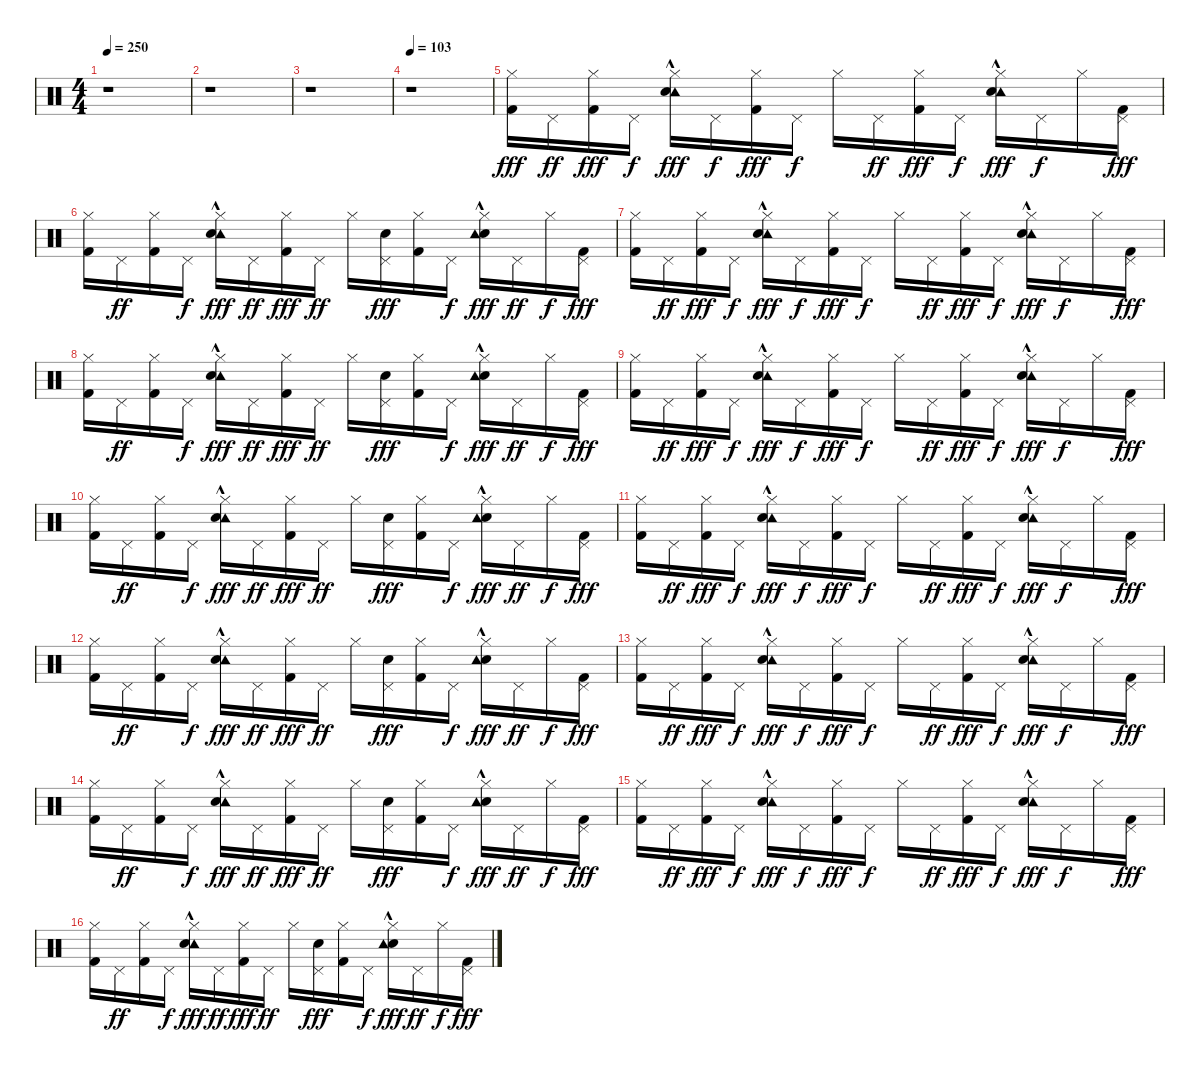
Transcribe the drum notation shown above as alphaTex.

\track "" {instrument percussion}
\staff {score}
\articulation defaults
\ts (4 4)
\tempo 250
\clef neutral
\ks c
r.1{dy fff} |
r.1 |
r.1 |
\tempo 103
r.1 |
("Hi-Hat (closed)" "Kick (hit) 2").16 "Pedal Hi-Hat (hit)".16{dy ff} ("Hi-Hat (closed)" "Kick (hit) 2").16{dy fff} "Pedal Hi-Hat (hit)".16{dy f} ("Tambourine (hit)"{hac} "Hi-Hat (closed)" "Electric Snare (hit)").16{dy fff} "Pedal Hi-Hat (hit)".16{dy f} ("Kick (hit) 2" "Hi-Hat (closed)").16{dy fff} "Pedal Hi-Hat (hit)".16{dy f} "Hi-Hat (closed)".16 "Pedal Hi-Hat (hit)".16{dy ff} ("Kick (hit) 2" "Hi-Hat (closed)").16{dy fff} "Pedal Hi-Hat (hit)".16{dy f} ("Tambourine (hit)"{hac} "Electric Snare (hit)" "Hi-Hat (closed)").16{dy fff} "Pedal Hi-Hat (hit)".16{dy f} "Hi-Hat (closed)".16 ("Kick (hit) 2" "Pedal Hi-Hat (hit)").16{dy fff} |
("Kick (hit) 2" "Hi-Hat (closed)").16 "Pedal Hi-Hat (hit)".16{dy ff} ("Kick (hit) 2" "Hi-Hat (closed)").16 "Pedal Hi-Hat (hit)".16{dy f} ("Tambourine (hit)"{hac} "Hi-Hat (closed)" "Electric Snare (hit)").16{dy fff} "Pedal Hi-Hat (hit)".16{dy ff} ("Hi-Hat (closed)" "Kick (hit) 2").16{dy fff} "Pedal Hi-Hat (hit)".16{dy ff} "Hi-Hat (closed)".16 ("Pedal Hi-Hat (hit)" "Electric Snare (hit)").16{dy fff} ("Kick (hit) 2" "Hi-Hat (closed)").16 "Pedal Hi-Hat (hit)".16{dy f} ("Electric Snare (hit)" "Hi-Hat (closed)" "Tambourine (hit)"{hac}).16{dy fff} "Pedal Hi-Hat (hit)".16{dy ff} "Hi-Hat (closed)".16{dy f} ("Pedal Hi-Hat (hit)" "Kick (hit) 2").16{dy fff} |
("Hi-Hat (closed)" "Kick (hit) 2").16 "Pedal Hi-Hat (hit)".16{dy ff} ("Hi-Hat (closed)" "Kick (hit) 2").16{dy fff} "Pedal Hi-Hat (hit)".16{dy f} ("Tambourine (hit)"{hac} "Hi-Hat (closed)" "Electric Snare (hit)").16{dy fff} "Pedal Hi-Hat (hit)".16{dy f} ("Kick (hit) 2" "Hi-Hat (closed)").16{dy fff} "Pedal Hi-Hat (hit)".16{dy f} "Hi-Hat (closed)".16 "Pedal Hi-Hat (hit)".16{dy ff} ("Kick (hit) 2" "Hi-Hat (closed)").16{dy fff} "Pedal Hi-Hat (hit)".16{dy f} ("Tambourine (hit)"{hac} "Electric Snare (hit)" "Hi-Hat (closed)").16{dy fff} "Pedal Hi-Hat (hit)".16{dy f} "Hi-Hat (closed)".16 ("Kick (hit) 2" "Pedal Hi-Hat (hit)").16{dy fff} |
("Kick (hit) 2" "Hi-Hat (closed)").16 "Pedal Hi-Hat (hit)".16{dy ff} ("Kick (hit) 2" "Hi-Hat (closed)").16 "Pedal Hi-Hat (hit)".16{dy f} ("Tambourine (hit)"{hac} "Hi-Hat (closed)" "Electric Snare (hit)").16{dy fff} "Pedal Hi-Hat (hit)".16{dy ff} ("Hi-Hat (closed)" "Kick (hit) 2").16{dy fff} "Pedal Hi-Hat (hit)".16{dy ff} "Hi-Hat (closed)".16 ("Pedal Hi-Hat (hit)" "Electric Snare (hit)").16{dy fff} ("Kick (hit) 2" "Hi-Hat (closed)").16 "Pedal Hi-Hat (hit)".16{dy f} ("Electric Snare (hit)" "Hi-Hat (closed)" "Tambourine (hit)"{hac}).16{dy fff} "Pedal Hi-Hat (hit)".16{dy ff} "Hi-Hat (closed)".16{dy f} ("Pedal Hi-Hat (hit)" "Kick (hit) 2").16{dy fff} |
("Hi-Hat (closed)" "Kick (hit) 2").16 "Pedal Hi-Hat (hit)".16{dy ff} ("Hi-Hat (closed)" "Kick (hit) 2").16{dy fff} "Pedal Hi-Hat (hit)".16{dy f} ("Tambourine (hit)"{hac} "Hi-Hat (closed)" "Electric Snare (hit)").16{dy fff} "Pedal Hi-Hat (hit)".16{dy f} ("Kick (hit) 2" "Hi-Hat (closed)").16{dy fff} "Pedal Hi-Hat (hit)".16{dy f} "Hi-Hat (closed)".16 "Pedal Hi-Hat (hit)".16{dy ff} ("Kick (hit) 2" "Hi-Hat (closed)").16{dy fff} "Pedal Hi-Hat (hit)".16{dy f} ("Tambourine (hit)"{hac} "Electric Snare (hit)" "Hi-Hat (closed)").16{dy fff} "Pedal Hi-Hat (hit)".16{dy f} "Hi-Hat (closed)".16 ("Kick (hit) 2" "Pedal Hi-Hat (hit)").16{dy fff} |
("Kick (hit) 2" "Hi-Hat (closed)").16 "Pedal Hi-Hat (hit)".16{dy ff} ("Kick (hit) 2" "Hi-Hat (closed)").16 "Pedal Hi-Hat (hit)".16{dy f} ("Tambourine (hit)"{hac} "Hi-Hat (closed)" "Electric Snare (hit)").16{dy fff} "Pedal Hi-Hat (hit)".16{dy ff} ("Hi-Hat (closed)" "Kick (hit) 2").16{dy fff} "Pedal Hi-Hat (hit)".16{dy ff} "Hi-Hat (closed)".16 ("Pedal Hi-Hat (hit)" "Electric Snare (hit)").16{dy fff} ("Kick (hit) 2" "Hi-Hat (closed)").16 "Pedal Hi-Hat (hit)".16{dy f} ("Electric Snare (hit)" "Hi-Hat (closed)" "Tambourine (hit)"{hac}).16{dy fff} "Pedal Hi-Hat (hit)".16{dy ff} "Hi-Hat (closed)".16{dy f} ("Pedal Hi-Hat (hit)" "Kick (hit) 2").16{dy fff} |
("Hi-Hat (closed)" "Kick (hit) 2").16 "Pedal Hi-Hat (hit)".16{dy ff} ("Hi-Hat (closed)" "Kick (hit) 2").16{dy fff} "Pedal Hi-Hat (hit)".16{dy f} ("Tambourine (hit)"{hac} "Hi-Hat (closed)" "Electric Snare (hit)").16{dy fff} "Pedal Hi-Hat (hit)".16{dy f} ("Kick (hit) 2" "Hi-Hat (closed)").16{dy fff} "Pedal Hi-Hat (hit)".16{dy f} "Hi-Hat (closed)".16 "Pedal Hi-Hat (hit)".16{dy ff} ("Kick (hit) 2" "Hi-Hat (closed)").16{dy fff} "Pedal Hi-Hat (hit)".16{dy f} ("Tambourine (hit)"{hac} "Electric Snare (hit)" "Hi-Hat (closed)").16{dy fff} "Pedal Hi-Hat (hit)".16{dy f} "Hi-Hat (closed)".16 ("Kick (hit) 2" "Pedal Hi-Hat (hit)").16{dy fff} |
("Kick (hit) 2" "Hi-Hat (closed)").16 "Pedal Hi-Hat (hit)".16{dy ff} ("Kick (hit) 2" "Hi-Hat (closed)").16 "Pedal Hi-Hat (hit)".16{dy f} ("Tambourine (hit)"{hac} "Hi-Hat (closed)" "Electric Snare (hit)").16{dy fff} "Pedal Hi-Hat (hit)".16{dy ff} ("Hi-Hat (closed)" "Kick (hit) 2").16{dy fff} "Pedal Hi-Hat (hit)".16{dy ff} "Hi-Hat (closed)".16 ("Pedal Hi-Hat (hit)" "Electric Snare (hit)").16{dy fff} ("Kick (hit) 2" "Hi-Hat (closed)").16 "Pedal Hi-Hat (hit)".16{dy f} ("Electric Snare (hit)" "Hi-Hat (closed)" "Tambourine (hit)"{hac}).16{dy fff} "Pedal Hi-Hat (hit)".16{dy ff} "Hi-Hat (closed)".16{dy f} ("Pedal Hi-Hat (hit)" "Kick (hit) 2").16{dy fff} |
("Hi-Hat (closed)" "Kick (hit) 2").16 "Pedal Hi-Hat (hit)".16{dy ff} ("Hi-Hat (closed)" "Kick (hit) 2").16{dy fff} "Pedal Hi-Hat (hit)".16{dy f} ("Tambourine (hit)"{hac} "Hi-Hat (closed)" "Electric Snare (hit)").16{dy fff} "Pedal Hi-Hat (hit)".16{dy f} ("Kick (hit) 2" "Hi-Hat (closed)").16{dy fff} "Pedal Hi-Hat (hit)".16{dy f} "Hi-Hat (closed)".16 "Pedal Hi-Hat (hit)".16{dy ff} ("Kick (hit) 2" "Hi-Hat (closed)").16{dy fff} "Pedal Hi-Hat (hit)".16{dy f} ("Tambourine (hit)"{hac} "Electric Snare (hit)" "Hi-Hat (closed)").16{dy fff} "Pedal Hi-Hat (hit)".16{dy f} "Hi-Hat (closed)".16 ("Kick (hit) 2" "Pedal Hi-Hat (hit)").16{dy fff} |
("Kick (hit) 2" "Hi-Hat (closed)").16 "Pedal Hi-Hat (hit)".16{dy ff} ("Kick (hit) 2" "Hi-Hat (closed)").16 "Pedal Hi-Hat (hit)".16{dy f} ("Tambourine (hit)"{hac} "Hi-Hat (closed)" "Electric Snare (hit)").16{dy fff} "Pedal Hi-Hat (hit)".16{dy ff} ("Hi-Hat (closed)" "Kick (hit) 2").16{dy fff} "Pedal Hi-Hat (hit)".16{dy ff} "Hi-Hat (closed)".16 ("Pedal Hi-Hat (hit)" "Electric Snare (hit)").16{dy fff} ("Kick (hit) 2" "Hi-Hat (closed)").16 "Pedal Hi-Hat (hit)".16{dy f} ("Electric Snare (hit)" "Hi-Hat (closed)" "Tambourine (hit)"{hac}).16{dy fff} "Pedal Hi-Hat (hit)".16{dy ff} "Hi-Hat (closed)".16{dy f} ("Pedal Hi-Hat (hit)" "Kick (hit) 2").16{dy fff} |
("Hi-Hat (closed)" "Kick (hit) 2").16 "Pedal Hi-Hat (hit)".16{dy ff} ("Hi-Hat (closed)" "Kick (hit) 2").16{dy fff} "Pedal Hi-Hat (hit)".16{dy f} ("Tambourine (hit)"{hac} "Hi-Hat (closed)" "Electric Snare (hit)").16{dy fff} "Pedal Hi-Hat (hit)".16{dy f} ("Kick (hit) 2" "Hi-Hat (closed)").16{dy fff} "Pedal Hi-Hat (hit)".16{dy f} "Hi-Hat (closed)".16 "Pedal Hi-Hat (hit)".16{dy ff} ("Kick (hit) 2" "Hi-Hat (closed)").16{dy fff} "Pedal Hi-Hat (hit)".16{dy f} ("Tambourine (hit)"{hac} "Electric Snare (hit)" "Hi-Hat (closed)").16{dy fff} "Pedal Hi-Hat (hit)".16{dy f} "Hi-Hat (closed)".16 ("Kick (hit) 2" "Pedal Hi-Hat (hit)").16{dy fff} |
("Kick (hit) 2" "Hi-Hat (closed)").16 "Pedal Hi-Hat (hit)".16{dy ff} ("Kick (hit) 2" "Hi-Hat (closed)").16 "Pedal Hi-Hat (hit)".16{dy f} ("Tambourine (hit)"{hac} "Hi-Hat (closed)" "Electric Snare (hit)").16{dy fff} "Pedal Hi-Hat (hit)".16{dy ff} ("Hi-Hat (closed)" "Kick (hit) 2").16{dy fff} "Pedal Hi-Hat (hit)".16{dy ff} "Hi-Hat (closed)".16 ("Pedal Hi-Hat (hit)" "Electric Snare (hit)").16{dy fff} ("Kick (hit) 2" "Hi-Hat (closed)").16 "Pedal Hi-Hat (hit)".16{dy f} ("Electric Snare (hit)" "Hi-Hat (closed)" "Tambourine (hit)"{hac}).16{dy fff} "Pedal Hi-Hat (hit)".16{dy ff} "Hi-Hat (closed)".16{dy f} ("Pedal Hi-Hat (hit)" "Kick (hit) 2").16{dy fff}
